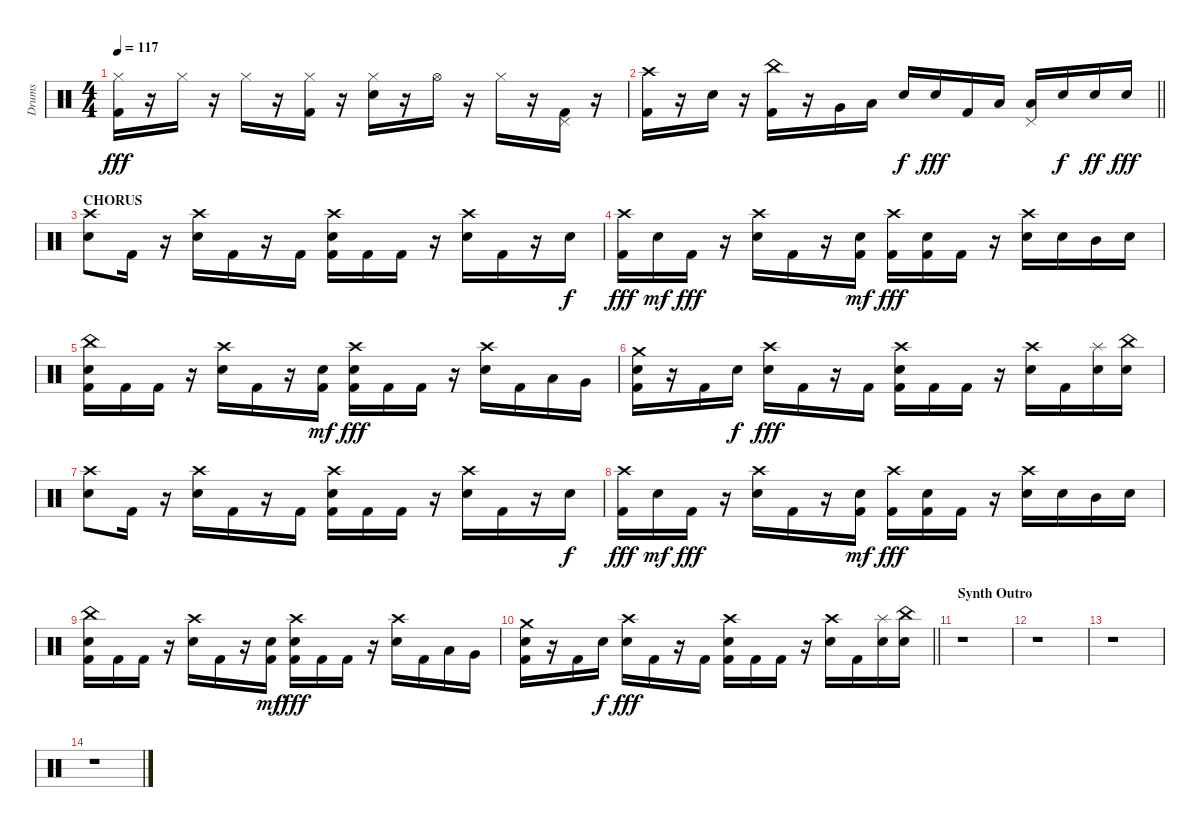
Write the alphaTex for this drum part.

\track ("Drums" "Drums") {instrument percussion}
\staff {score}
\articulation defaults
\ts (4 4)
\tempo 117
\clef neutral
\ks c
("Kick (hit) 2" "Hi-Hat (closed)").16{dy fff} r.16 "Hi-Hat (closed)".16 r.16 "Hi-Hat (closed)".16 r.16 ("Kick (hit) 2" "Hi-Hat (closed)").16 r.16 ("Snare (hit) 2" "Hi-Hat (closed)").16 r.16 "Hi-Hat (open)".16 r.16 "Hi-Hat (closed)".16 r.16 ("Kick (hit) 2" "Pedal Hi-Hat (hit)").16 r.16 |
\barLineRight lightlight
("Kick (hit) 2" "Crash high (hit)").16 r.16 "Snare (hit) 2".16 r.16 ("Kick (hit) 2" "China (hit)").16 r.16 "Very Low Tom (hit)".16 "Low Tom (hit)".16 "Snare (hit) 2".16{dy f} "Snare (hit) 2".16{dy fff} "Kick (hit) 2".16 "Low Floor Tom (hit)".16 ("Pedal Hi-Hat (hit)" "Low Tom (hit)").16 "Snare (hit) 2".16{dy f} "Snare (hit) 2".16{dy ff} "Snare (hit) 2".16{dy fff} |
\section ("" "CHORUS")
("Snare (hit) 2" "Crash high (hit)").8 "Kick (hit) 2".16 r.16 ("Snare (hit) 2" "Crash high (hit)").16 "Kick (hit) 2".16 r.16 "Kick (hit) 2".16 ("Kick (hit) 2" "Snare (hit) 2" "Crash high (hit)").16 "Kick (hit) 2".16 "Kick (hit) 2".16 r.16 ("Snare (hit) 2" "Crash high (hit)").16 "Kick (hit) 2".16 r.16 "Snare (hit) 2".16{dy f} |
("Kick (hit) 2" "Crash high (hit)").16{dy fff} "Snare (hit) 2".16{dy mf} "Kick (hit) 2".16{dy fff} r.16 ("Snare (hit) 2" "Crash high (hit)").16 "Kick (hit) 2".16 r.16 ("Kick (hit) 2" "Snare (hit) 2").16{dy mf} ("Kick (hit) 2" "Crash high (hit)").16{dy fff} ("Kick (hit) 2" "Snare (hit) 2").16 "Kick (hit) 2".16 r.16 ("Snare (hit) 2" "Crash high (hit)").16 "Snare (hit) 2".16 "Mid Tom (hit)".16 "Snare (hit) 2".16 |
("Kick (hit) 2" "Snare (hit) 2" "China (hit)").16 "Kick (hit) 2".16 "Kick (hit) 2".16 r.16 ("Snare (hit) 2" "Crash high (hit)").16 "Kick (hit) 2".16 r.16 ("Kick (hit) 2" "Snare (hit) 2").16{dy mf} ("Kick (hit) 2" "Snare (hit) 2" "Crash high (hit)").16{dy fff} "Kick (hit) 2".16 "Kick (hit) 2".16 r.16 ("Snare (hit) 2" "Crash high (hit)").16 "Kick (hit) 2".16 "Low Tom (hit)".16 "Very Low Tom (hit)".16 |
("Kick (hit) 2" "Snare (hit) 2" "Crash medium (hit)").16 r.16 "Kick (hit) 2".16 "Snare (hit) 2".16{dy f} ("Snare (hit) 2" "Crash high (hit)").16{dy fff} "Kick (hit) 2".16 r.16 "Kick (hit) 2".16 ("Kick (hit) 2" "Snare (hit) 2" "Crash high (hit)").16 "Kick (hit) 2".16 "Kick (hit) 2".16 r.16 ("Snare (hit) 2" "Crash high (hit)").16 "Kick (hit) 2".16 ("Snare (hit) 2" "Splash (hit)").16 ("Snare (hit) 2" "China (hit)").16 |
("Snare (hit) 2" "Crash high (hit)").8 "Kick (hit) 2".16 r.16 ("Snare (hit) 2" "Crash high (hit)").16 "Kick (hit) 2".16 r.16 "Kick (hit) 2".16 ("Kick (hit) 2" "Snare (hit) 2" "Crash high (hit)").16 "Kick (hit) 2".16 "Kick (hit) 2".16 r.16 ("Snare (hit) 2" "Crash high (hit)").16 "Kick (hit) 2".16 r.16 "Snare (hit) 2".16{dy f} |
("Kick (hit) 2" "Crash high (hit)").16{dy fff} "Snare (hit) 2".16{dy mf} "Kick (hit) 2".16{dy fff} r.16 ("Snare (hit) 2" "Crash high (hit)").16 "Kick (hit) 2".16 r.16 ("Kick (hit) 2" "Snare (hit) 2").16{dy mf} ("Kick (hit) 2" "Crash high (hit)").16{dy fff} ("Kick (hit) 2" "Snare (hit) 2").16 "Kick (hit) 2".16 r.16 ("Snare (hit) 2" "Crash high (hit)").16 "Snare (hit) 2".16 "Mid Tom (hit)".16 "Snare (hit) 2".16 |
("Kick (hit) 2" "Snare (hit) 2" "China (hit)").16 "Kick (hit) 2".16 "Kick (hit) 2".16 r.16 ("Snare (hit) 2" "Crash high (hit)").16 "Kick (hit) 2".16 r.16 ("Kick (hit) 2" "Snare (hit) 2").16{dy mf} ("Kick (hit) 2" "Snare (hit) 2" "Crash high (hit)").16{dy fff} "Kick (hit) 2".16 "Kick (hit) 2".16 r.16 ("Snare (hit) 2" "Crash high (hit)").16 "Kick (hit) 2".16 "Low Tom (hit)".16 "Very Low Tom (hit)".16 |
\barLineRight lightlight
("Kick (hit) 2" "Snare (hit) 2" "Crash medium (hit)").16 r.16 "Kick (hit) 2".16 "Snare (hit) 2".16{dy f} ("Snare (hit) 2" "Crash high (hit)").16{dy fff} "Kick (hit) 2".16 r.16 "Kick (hit) 2".16 ("Kick (hit) 2" "Snare (hit) 2" "Crash high (hit)").16 "Kick (hit) 2".16 "Kick (hit) 2".16 r.16 ("Snare (hit) 2" "Crash high (hit)").16 "Kick (hit) 2".16 ("Snare (hit) 2" "Splash (hit)").16 ("Snare (hit) 2" "China (hit)").16 |
\section ("" "Synth Outro")
r.1 |
r.1 |
r.1 |
r.1
